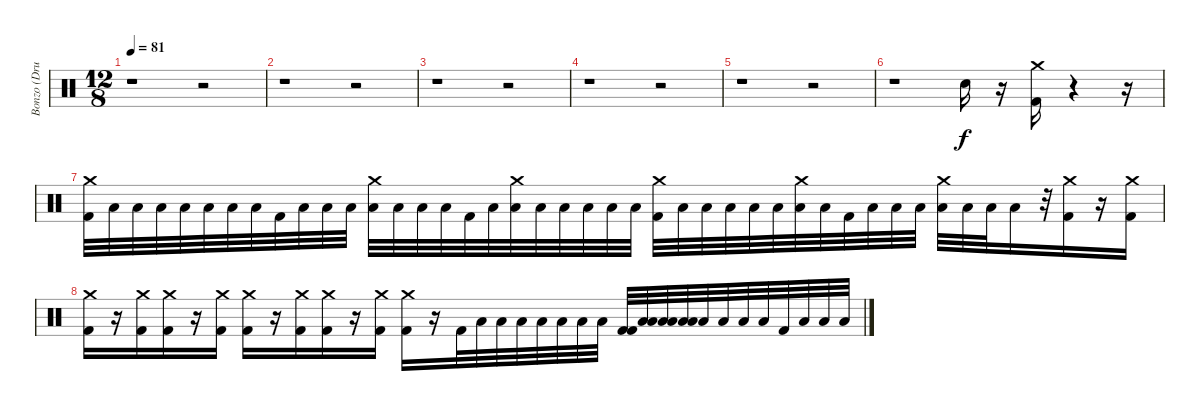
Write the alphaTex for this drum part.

\track ("Bonzo (Drums)" "Bonzo (Dru") {instrument percussion}
\staff {score}
\articulation defaults
\ts (12 8)
\tempo 81
\clef neutral
\ks c
r.1{dy f} r.2 |
r.1 r.2 |
r.1 r.2 |
r.1 r.2 |
r.1 r.2 |
r.1 "Electric Snare (hit)".16 r.16 ("Kick (hit) 2" "Crash medium (hit)").16 r.4 r.16 |
("Crash medium (hit)" "Kick (hit) 2").32 "Low Tom (hit)".32 "Low Tom (hit)".32 "Low Tom (hit)".32 "Low Tom (hit)".32 "Low Tom (hit)".32 "Low Tom (hit)".32 "Low Tom (hit)".32 "Kick (hit) 2".32 "Low Tom (hit)".32 "Low Tom (hit)".32 "Low Tom (hit)".32 ("Crash medium (hit)" "Low Tom (hit)").32 "Low Tom (hit)".32 "Low Tom (hit)".32 "Low Tom (hit)".32 "Kick (hit) 2".32 "Low Tom (hit)".32 ("Crash medium (hit)" "Low Tom (hit)").32 "Low Tom (hit)".32 "Low Tom (hit)".32 "Low Tom (hit)".32 "Low Tom (hit)".32 "Low Tom (hit)".32 ("Crash medium (hit)" "Kick (hit) 2").32 "Low Tom (hit)".32 "Low Tom (hit)".32 "Low Tom (hit)".32 "Low Tom (hit)".32 "Low Tom (hit)".32 ("Crash medium (hit)" "Low Tom (hit)").32 "Low Tom (hit)".32 "Kick (hit) 2".32 "Low Tom (hit)".32 "Low Tom (hit)".32 "Low Tom (hit)".32 ("Crash medium (hit)" "Low Tom (hit)").32 "Low Tom (hit)".32 "Low Tom (hit)".32 "Low Tom (hit)".16 r.32 ("Crash medium (hit)" "Kick (hit) 2").16 r.16 ("Crash medium (hit)" "Kick (hit) 2").16 |
("Crash medium (hit)" "Kick (hit) 2").16 r.16 ("Crash medium (hit)" "Kick (hit) 2").16 ("Crash medium (hit)" "Kick (hit) 2").16 r.16 ("Crash medium (hit)" "Kick (hit) 2").16 ("Crash medium (hit)" "Kick (hit) 2").16 r.16 ("Crash medium (hit)" "Kick (hit) 2").16 ("Crash medium (hit)" "Kick (hit) 2").16 r.16 ("Crash medium (hit)" "Kick (hit) 2").16 ("Crash medium (hit)" "Kick (hit) 2").16 r.16 "Kick (hit) 2".32 "Low Tom (hit)".32 "Low Tom (hit)".32 "Low Tom (hit)".32 "Low Tom (hit)".32 "Low Tom (hit)".32 "Low Tom (hit)".32 "Low Tom (hit)".32 ("Kick (hit) 2" "Kick (hit) 2").32 ("Low Tom (hit)" "Low Tom (hit)").32 ("Low Tom (hit)" "Low Tom (hit)").32 ("Low Tom (hit)" "Low Tom (hit)").32 "Low Tom (hit)".32 "Low Tom (hit)".32 "Low Tom (hit)".32 "Low Tom (hit)".32 "Kick (hit) 2".32 "Low Tom (hit)".32 "Low Tom (hit)".32 "Low Tom (hit)".32
